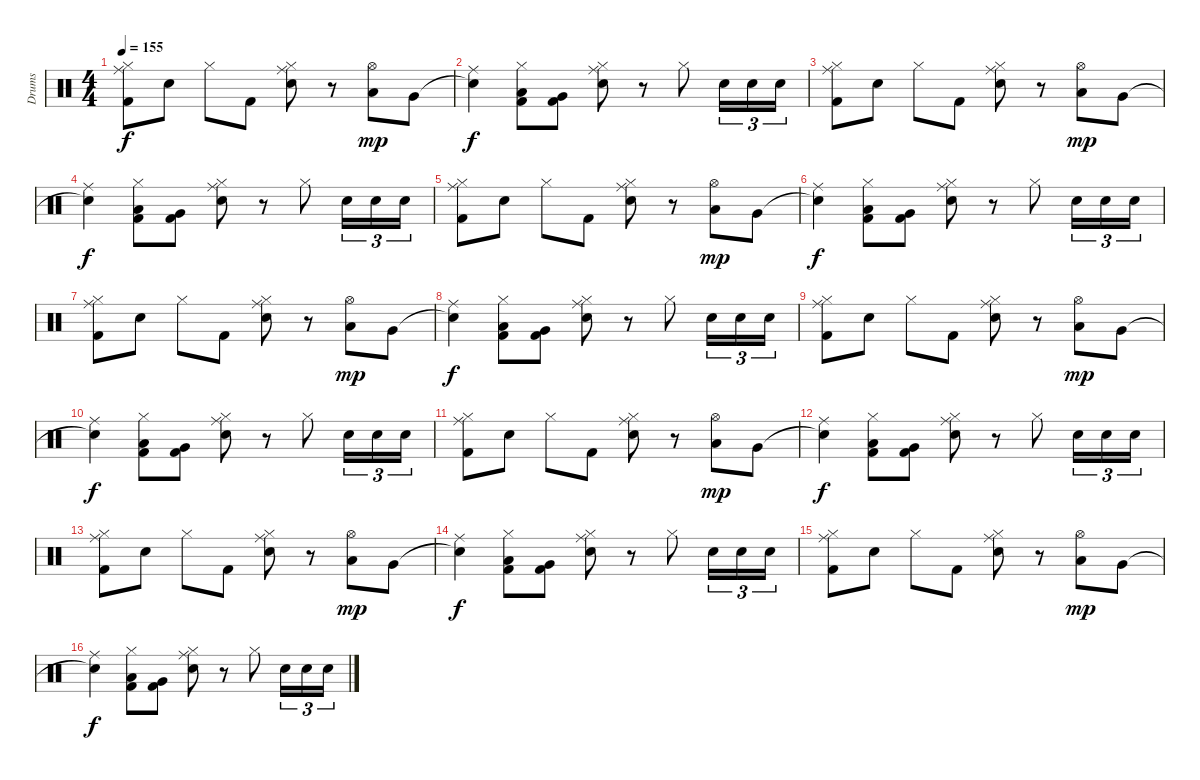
\track ("Drums" "Drums") {instrument percussion}
\staff {score}
\articulation defaults
\ts (4 4)
\tempo 155
\clef neutral
\ks c
("Hi-Hat (closed)" "Ride (middle)" "Kick (hit) 2").8{dy f} "Electric Snare (hit)".8 "Hi-Hat (closed)".8 "Kick (hit) 2".8 ("Hi-Hat (closed)" "Ride (middle)" "Electric Snare (hit)").8 r.8 ("Hi-Hat (open)" "Low Tom (hit)").8{dy mp} "Very Low Tom (hit)".8 |
("Snare (hit)"{t} "Ride (middle)").4{dy f} ("Hi-Hat (closed)" "Low Tom (hit)" "Kick (hit) 2").8 ("Very Low Tom (hit)" "Kick (hit) 2").8 ("Hi-Hat (closed)" "Ride (middle)" "Electric Snare (hit)").8 r.8 "Hi-Hat (closed)".8 "Electric Snare (hit)".16{tu (3 2)} "Electric Snare (hit)".16{tu (3 2)} "Electric Snare (hit)".16{tu (3 2)} |
("Hi-Hat (closed)" "Ride (middle)" "Kick (hit) 2").8 "Electric Snare (hit)".8 "Hi-Hat (closed)".8 "Kick (hit) 2".8 ("Hi-Hat (closed)" "Ride (middle)" "Electric Snare (hit)").8 r.8 ("Hi-Hat (open)" "Low Tom (hit)").8{dy mp} "Very Low Tom (hit)".8 |
("Snare (hit)"{t} "Ride (middle)").4{dy f} ("Hi-Hat (closed)" "Low Tom (hit)" "Kick (hit) 2").8 ("Very Low Tom (hit)" "Kick (hit) 2").8 ("Hi-Hat (closed)" "Ride (middle)" "Electric Snare (hit)").8 r.8 "Hi-Hat (closed)".8 "Electric Snare (hit)".16{tu (3 2)} "Electric Snare (hit)".16{tu (3 2)} "Electric Snare (hit)".16{tu (3 2)} |
("Hi-Hat (closed)" "Ride (middle)" "Kick (hit) 2").8 "Electric Snare (hit)".8 "Hi-Hat (closed)".8 "Kick (hit) 2".8 ("Hi-Hat (closed)" "Ride (middle)" "Electric Snare (hit)").8 r.8 ("Hi-Hat (open)" "Low Tom (hit)").8{dy mp} "Very Low Tom (hit)".8 |
("Snare (hit)"{t} "Ride (middle)").4{dy f} ("Hi-Hat (closed)" "Low Tom (hit)" "Kick (hit) 2").8 ("Very Low Tom (hit)" "Kick (hit) 2").8 ("Hi-Hat (closed)" "Ride (middle)" "Electric Snare (hit)").8 r.8 "Hi-Hat (closed)".8 "Electric Snare (hit)".16{tu (3 2)} "Electric Snare (hit)".16{tu (3 2)} "Electric Snare (hit)".16{tu (3 2)} |
("Hi-Hat (closed)" "Ride (middle)" "Kick (hit) 2").8 "Electric Snare (hit)".8 "Hi-Hat (closed)".8 "Kick (hit) 2".8 ("Hi-Hat (closed)" "Ride (middle)" "Electric Snare (hit)").8 r.8 ("Hi-Hat (open)" "Low Tom (hit)").8{dy mp} "Very Low Tom (hit)".8 |
("Snare (hit)"{t} "Ride (middle)").4{dy f} ("Hi-Hat (closed)" "Low Tom (hit)" "Kick (hit) 2").8 ("Very Low Tom (hit)" "Kick (hit) 2").8 ("Hi-Hat (closed)" "Ride (middle)" "Electric Snare (hit)").8 r.8 "Hi-Hat (closed)".8 "Electric Snare (hit)".16{tu (3 2)} "Electric Snare (hit)".16{tu (3 2)} "Electric Snare (hit)".16{tu (3 2)} |
("Hi-Hat (closed)" "Ride (middle)" "Kick (hit) 2").8 "Electric Snare (hit)".8 "Hi-Hat (closed)".8 "Kick (hit) 2".8 ("Hi-Hat (closed)" "Ride (middle)" "Electric Snare (hit)").8 r.8 ("Hi-Hat (open)" "Low Tom (hit)").8{dy mp} "Very Low Tom (hit)".8 |
("Snare (hit)"{t} "Ride (middle)").4{dy f} ("Hi-Hat (closed)" "Low Tom (hit)" "Kick (hit) 2").8 ("Very Low Tom (hit)" "Kick (hit) 2").8 ("Hi-Hat (closed)" "Ride (middle)" "Electric Snare (hit)").8 r.8 "Hi-Hat (closed)".8 "Electric Snare (hit)".16{tu (3 2)} "Electric Snare (hit)".16{tu (3 2)} "Electric Snare (hit)".16{tu (3 2)} |
("Hi-Hat (closed)" "Ride (middle)" "Kick (hit) 2").8 "Electric Snare (hit)".8 "Hi-Hat (closed)".8 "Kick (hit) 2".8 ("Hi-Hat (closed)" "Ride (middle)" "Electric Snare (hit)").8 r.8 ("Hi-Hat (open)" "Low Tom (hit)").8{dy mp} "Very Low Tom (hit)".8 |
("Snare (hit)"{t} "Ride (middle)").4{dy f} ("Hi-Hat (closed)" "Low Tom (hit)" "Kick (hit) 2").8 ("Very Low Tom (hit)" "Kick (hit) 2").8 ("Hi-Hat (closed)" "Ride (middle)" "Electric Snare (hit)").8 r.8 "Hi-Hat (closed)".8 "Electric Snare (hit)".16{tu (3 2)} "Electric Snare (hit)".16{tu (3 2)} "Electric Snare (hit)".16{tu (3 2)} |
("Hi-Hat (closed)" "Ride (middle)" "Kick (hit) 2").8 "Electric Snare (hit)".8 "Hi-Hat (closed)".8 "Kick (hit) 2".8 ("Hi-Hat (closed)" "Ride (middle)" "Electric Snare (hit)").8 r.8 ("Hi-Hat (open)" "Low Tom (hit)").8{dy mp} "Very Low Tom (hit)".8 |
("Snare (hit)"{t} "Ride (middle)").4{dy f} ("Hi-Hat (closed)" "Low Tom (hit)" "Kick (hit) 2").8 ("Very Low Tom (hit)" "Kick (hit) 2").8 ("Hi-Hat (closed)" "Ride (middle)" "Electric Snare (hit)").8 r.8 "Hi-Hat (closed)".8 "Electric Snare (hit)".16{tu (3 2)} "Electric Snare (hit)".16{tu (3 2)} "Electric Snare (hit)".16{tu (3 2)} |
("Hi-Hat (closed)" "Ride (middle)" "Kick (hit) 2").8 "Electric Snare (hit)".8 "Hi-Hat (closed)".8 "Kick (hit) 2".8 ("Hi-Hat (closed)" "Ride (middle)" "Electric Snare (hit)").8 r.8 ("Hi-Hat (open)" "Low Tom (hit)").8{dy mp} "Very Low Tom (hit)".8 |
("Snare (hit)"{t} "Ride (middle)").4{dy f} ("Hi-Hat (closed)" "Low Tom (hit)" "Kick (hit) 2").8 ("Very Low Tom (hit)" "Kick (hit) 2").8 ("Hi-Hat (closed)" "Ride (middle)" "Electric Snare (hit)").8 r.8 "Hi-Hat (closed)".8 "Electric Snare (hit)".16{tu (3 2)} "Electric Snare (hit)".16{tu (3 2)} "Electric Snare (hit)".16{tu (3 2)}
